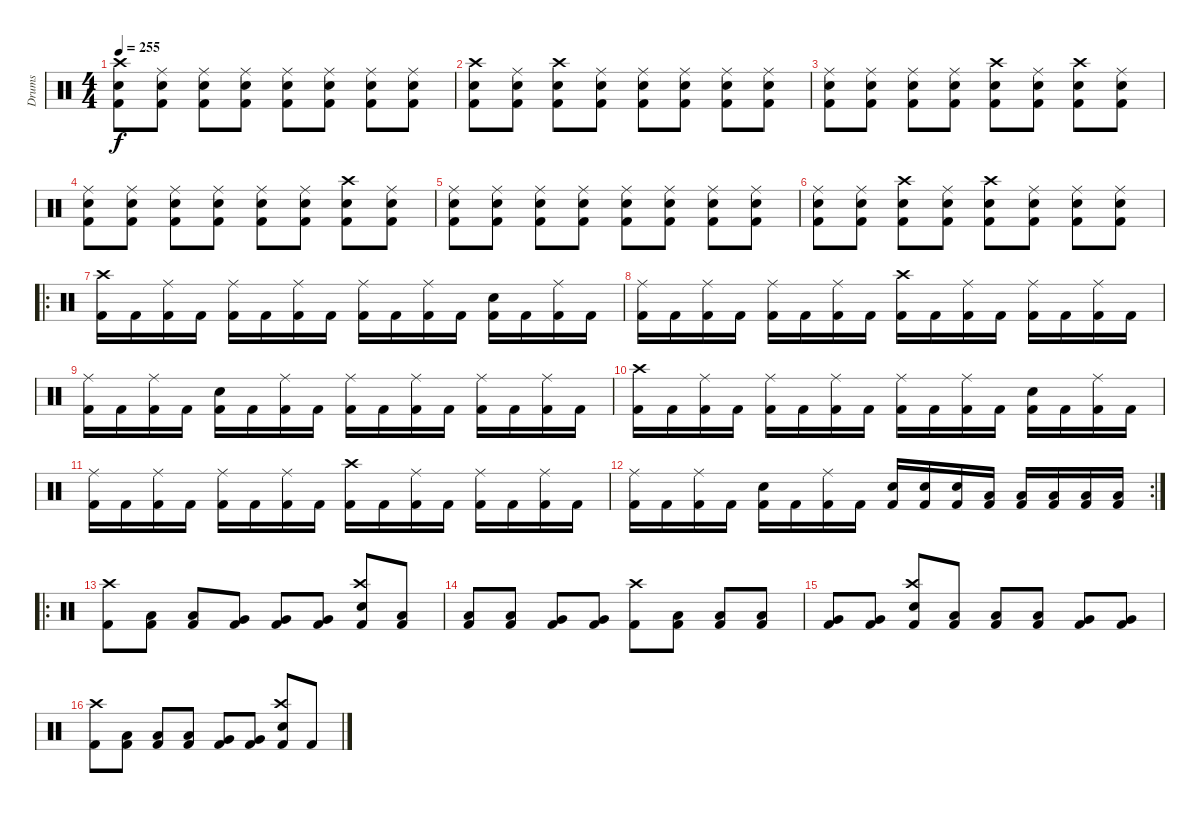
\track ("Drums" "Drums") {instrument percussion}
\staff {score}
\articulation defaults
\ts (4 4)
\tempo 255
\clef neutral
\ks c
("Snare (hit) 2" "Crash high (hit)" "Kick (hit) 2").8{dy f} ("Snare (hit) 2" "Ride (middle)" "Kick (hit) 2").8 ("Snare (hit) 2" "Ride (middle)" "Kick (hit) 2").8 ("Snare (hit) 2" "Ride (middle)" "Kick (hit) 2").8 ("Snare (hit) 2" "Ride (middle)" "Kick (hit) 2").8 ("Snare (hit) 2" "Ride (middle)" "Kick (hit) 2").8 ("Snare (hit) 2" "Ride (middle)" "Kick (hit) 2").8 ("Snare (hit) 2" "Ride (middle)" "Kick (hit) 2").8 |
("Snare (hit) 2" "Crash high (hit)" "Kick (hit) 2").8 ("Snare (hit) 2" "Ride (middle)" "Kick (hit) 2").8 ("Snare (hit) 2" "Crash high (hit)" "Kick (hit) 2").8 ("Snare (hit) 2" "Ride (middle)" "Kick (hit) 2").8 ("Snare (hit) 2" "Ride (middle)" "Kick (hit) 2").8 ("Snare (hit) 2" "Ride (middle)" "Kick (hit) 2").8 ("Snare (hit) 2" "Ride (middle)" "Kick (hit) 2").8 ("Snare (hit) 2" "Ride (middle)" "Kick (hit) 2").8 |
("Snare (hit) 2" "Ride (middle)" "Kick (hit) 2").8 ("Snare (hit) 2" "Ride (middle)" "Kick (hit) 2").8 ("Snare (hit) 2" "Ride (middle)" "Kick (hit) 2").8 ("Snare (hit) 2" "Ride (middle)" "Kick (hit) 2").8 ("Snare (hit) 2" "Crash high (hit)" "Kick (hit) 2").8 ("Snare (hit) 2" "Ride (middle)" "Kick (hit) 2").8 ("Snare (hit) 2" "Crash high (hit)" "Kick (hit) 2").8 ("Snare (hit) 2" "Ride (middle)" "Kick (hit) 2").8 |
("Snare (hit) 2" "Ride (middle)" "Kick (hit) 2").8 ("Snare (hit) 2" "Ride (middle)" "Kick (hit) 2").8 ("Snare (hit) 2" "Ride (middle)" "Kick (hit) 2").8 ("Snare (hit) 2" "Ride (middle)" "Kick (hit) 2").8 ("Snare (hit) 2" "Ride (middle)" "Kick (hit) 2").8 ("Snare (hit) 2" "Ride (middle)" "Kick (hit) 2").8 ("Snare (hit) 2" "Crash high (hit)" "Kick (hit) 2").8 ("Snare (hit) 2" "Ride (middle)" "Kick (hit) 2").8 |
("Snare (hit) 2" "Ride (middle)" "Kick (hit) 2").8 ("Snare (hit) 2" "Ride (middle)" "Kick (hit) 2").8 ("Snare (hit) 2" "Ride (middle)" "Kick (hit) 2").8 ("Snare (hit) 2" "Ride (middle)" "Kick (hit) 2").8 ("Snare (hit) 2" "Ride (middle)" "Kick (hit) 2").8 ("Snare (hit) 2" "Ride (middle)" "Kick (hit) 2").8 ("Snare (hit) 2" "Ride (middle)" "Kick (hit) 2").8 ("Snare (hit) 2" "Ride (middle)" "Kick (hit) 2").8 |
("Snare (hit) 2" "Ride (middle)" "Kick (hit) 2").8 ("Snare (hit) 2" "Ride (middle)" "Kick (hit) 2").8 ("Snare (hit) 2" "Crash high (hit)" "Kick (hit) 2").8 ("Snare (hit) 2" "Ride (middle)" "Kick (hit) 2").8 ("Snare (hit) 2" "Crash high (hit)" "Kick (hit) 2").8 ("Snare (hit) 2" "Ride (middle)" "Kick (hit) 2").8 ("Snare (hit) 2" "Ride (middle)" "Kick (hit) 2").8 ("Snare (hit) 2" "Ride (middle)" "Kick (hit) 2").8 |
\ro
("Crash high (hit)" "Kick (hit) 2").16 "Kick (hit) 2".16 ("Ride (middle)" "Kick (hit) 2").16 "Kick (hit) 2".16 ("Ride (middle)" "Kick (hit) 2").16 "Kick (hit) 2".16 ("Ride (middle)" "Kick (hit) 2").16 "Kick (hit) 2".16 ("Ride (middle)" "Kick (hit) 2").16 "Kick (hit) 2".16 ("Ride (middle)" "Kick (hit) 2").16 "Kick (hit) 2".16 ("Snare (hit) 2" "Kick (hit) 2").16 "Kick (hit) 2".16 ("Ride (middle)" "Kick (hit) 2").16 "Kick (hit) 2".16 |
("Ride (middle)" "Kick (hit) 2").16 "Kick (hit) 2".16 ("Ride (middle)" "Kick (hit) 2").16 "Kick (hit) 2".16 ("Ride (middle)" "Kick (hit) 2").16 "Kick (hit) 2".16 ("Ride (middle)" "Kick (hit) 2").16 "Kick (hit) 2".16 ("Crash high (hit)" "Kick (hit) 2").16 "Kick (hit) 2".16 ("Ride (middle)" "Kick (hit) 2").16 "Kick (hit) 2".16 ("Ride (middle)" "Kick (hit) 2").16 "Kick (hit) 2".16 ("Ride (middle)" "Kick (hit) 2").16 "Kick (hit) 2".16 |
("Ride (middle)" "Kick (hit) 2").16 "Kick (hit) 2".16 ("Ride (middle)" "Kick (hit) 2").16 "Kick (hit) 2".16 ("Snare (hit) 2" "Kick (hit) 2").16 "Kick (hit) 2".16 ("Ride (middle)" "Kick (hit) 2").16 "Kick (hit) 2".16 ("Ride (middle)" "Kick (hit) 2").16 "Kick (hit) 2".16 ("Ride (middle)" "Kick (hit) 2").16 "Kick (hit) 2".16 ("Ride (middle)" "Kick (hit) 2").16 "Kick (hit) 2".16 ("Ride (middle)" "Kick (hit) 2").16 "Kick (hit) 2".16 |
("Crash high (hit)" "Kick (hit) 2").16 "Kick (hit) 2".16 ("Ride (middle)" "Kick (hit) 2").16 "Kick (hit) 2".16 ("Ride (middle)" "Kick (hit) 2").16 "Kick (hit) 2".16 ("Ride (middle)" "Kick (hit) 2").16 "Kick (hit) 2".16 ("Ride (middle)" "Kick (hit) 2").16 "Kick (hit) 2".16 ("Ride (middle)" "Kick (hit) 2").16 "Kick (hit) 2".16 ("Snare (hit) 2" "Kick (hit) 2").16 "Kick (hit) 2".16 ("Ride (middle)" "Kick (hit) 2").16 "Kick (hit) 2".16 |
("Ride (middle)" "Kick (hit) 2").16 "Kick (hit) 2".16 ("Ride (middle)" "Kick (hit) 2").16 "Kick (hit) 2".16 ("Ride (middle)" "Kick (hit) 2").16 "Kick (hit) 2".16 ("Ride (middle)" "Kick (hit) 2").16 "Kick (hit) 2".16 ("Crash high (hit)" "Kick (hit) 2").16 "Kick (hit) 2".16 ("Ride (middle)" "Kick (hit) 2").16 "Kick (hit) 2".16 ("Ride (middle)" "Kick (hit) 2").16 "Kick (hit) 2".16 ("Ride (middle)" "Kick (hit) 2").16 "Kick (hit) 2".16 |
\rc 2
("Ride (middle)" "Kick (hit) 2").16 "Kick (hit) 2".16 ("Ride (middle)" "Kick (hit) 2").16 "Kick (hit) 2".16 ("Snare (hit) 2" "Kick (hit) 2").16 "Kick (hit) 2".16 ("Ride (middle)" "Kick (hit) 2").16 "Kick (hit) 2".16 ("Snare (hit) 2" "Kick (hit) 2").16 ("Snare (hit) 2" "Kick (hit) 2").16 ("Snare (hit) 2" "Kick (hit) 2").16 ("Low Floor Tom (hit)" "Kick (hit) 2").16 ("Low Floor Tom (hit)" "Kick (hit) 2").16 ("Low Floor Tom (hit)" "Kick (hit) 2").16 ("Low Tom (hit)" "Kick (hit) 2").16 ("Low Tom (hit)" "Kick (hit) 2").16 |
\ro
("Crash high (hit)" "Kick (hit) 2").8 ("Low Floor Tom (hit)" "Kick (hit) 2").8 ("Low Floor Tom (hit)" "Kick (hit) 2").8 ("Very Low Tom (hit)" "Kick (hit) 2").8 ("Very Low Tom (hit)" "Kick (hit) 2").8 ("Very Low Tom (hit)" "Kick (hit) 2").8 ("Snare (hit) 2" "Crash high (hit)" "Kick (hit) 2").8 ("Low Floor Tom (hit)" "Kick (hit) 2").8 |
("Low Floor Tom (hit)" "Kick (hit) 2").8 ("Low Floor Tom (hit)" "Kick (hit) 2").8 ("Very Low Tom (hit)" "Kick (hit) 2").8 ("Very Low Tom (hit)" "Kick (hit) 2").8 ("Crash high (hit)" "Kick (hit) 2").8 ("Low Floor Tom (hit)" "Kick (hit) 2").8 ("Low Floor Tom (hit)" "Kick (hit) 2").8 ("Low Floor Tom (hit)" "Kick (hit) 2").8 |
("Very Low Tom (hit)" "Kick (hit) 2").8 ("Very Low Tom (hit)" "Kick (hit) 2").8 ("Snare (hit) 2" "Crash high (hit)" "Kick (hit) 2").8 ("Low Floor Tom (hit)" "Kick (hit) 2").8 ("Low Floor Tom (hit)" "Kick (hit) 2").8 ("Low Floor Tom (hit)" "Kick (hit) 2").8 ("Very Low Tom (hit)" "Kick (hit) 2").8 ("Very Low Tom (hit)" "Kick (hit) 2").8 |
("Crash high (hit)" "Kick (hit) 2").8 ("Low Floor Tom (hit)" "Kick (hit) 2").8 ("Low Floor Tom (hit)" "Kick (hit) 2").8 ("Low Floor Tom (hit)" "Kick (hit) 2").8 ("Very Low Tom (hit)" "Kick (hit) 2").8 ("Very Low Tom (hit)" "Kick (hit) 2").8 ("Snare (hit) 2" "Crash high (hit)" "Kick (hit) 2").8 "Kick (hit) 2".8
